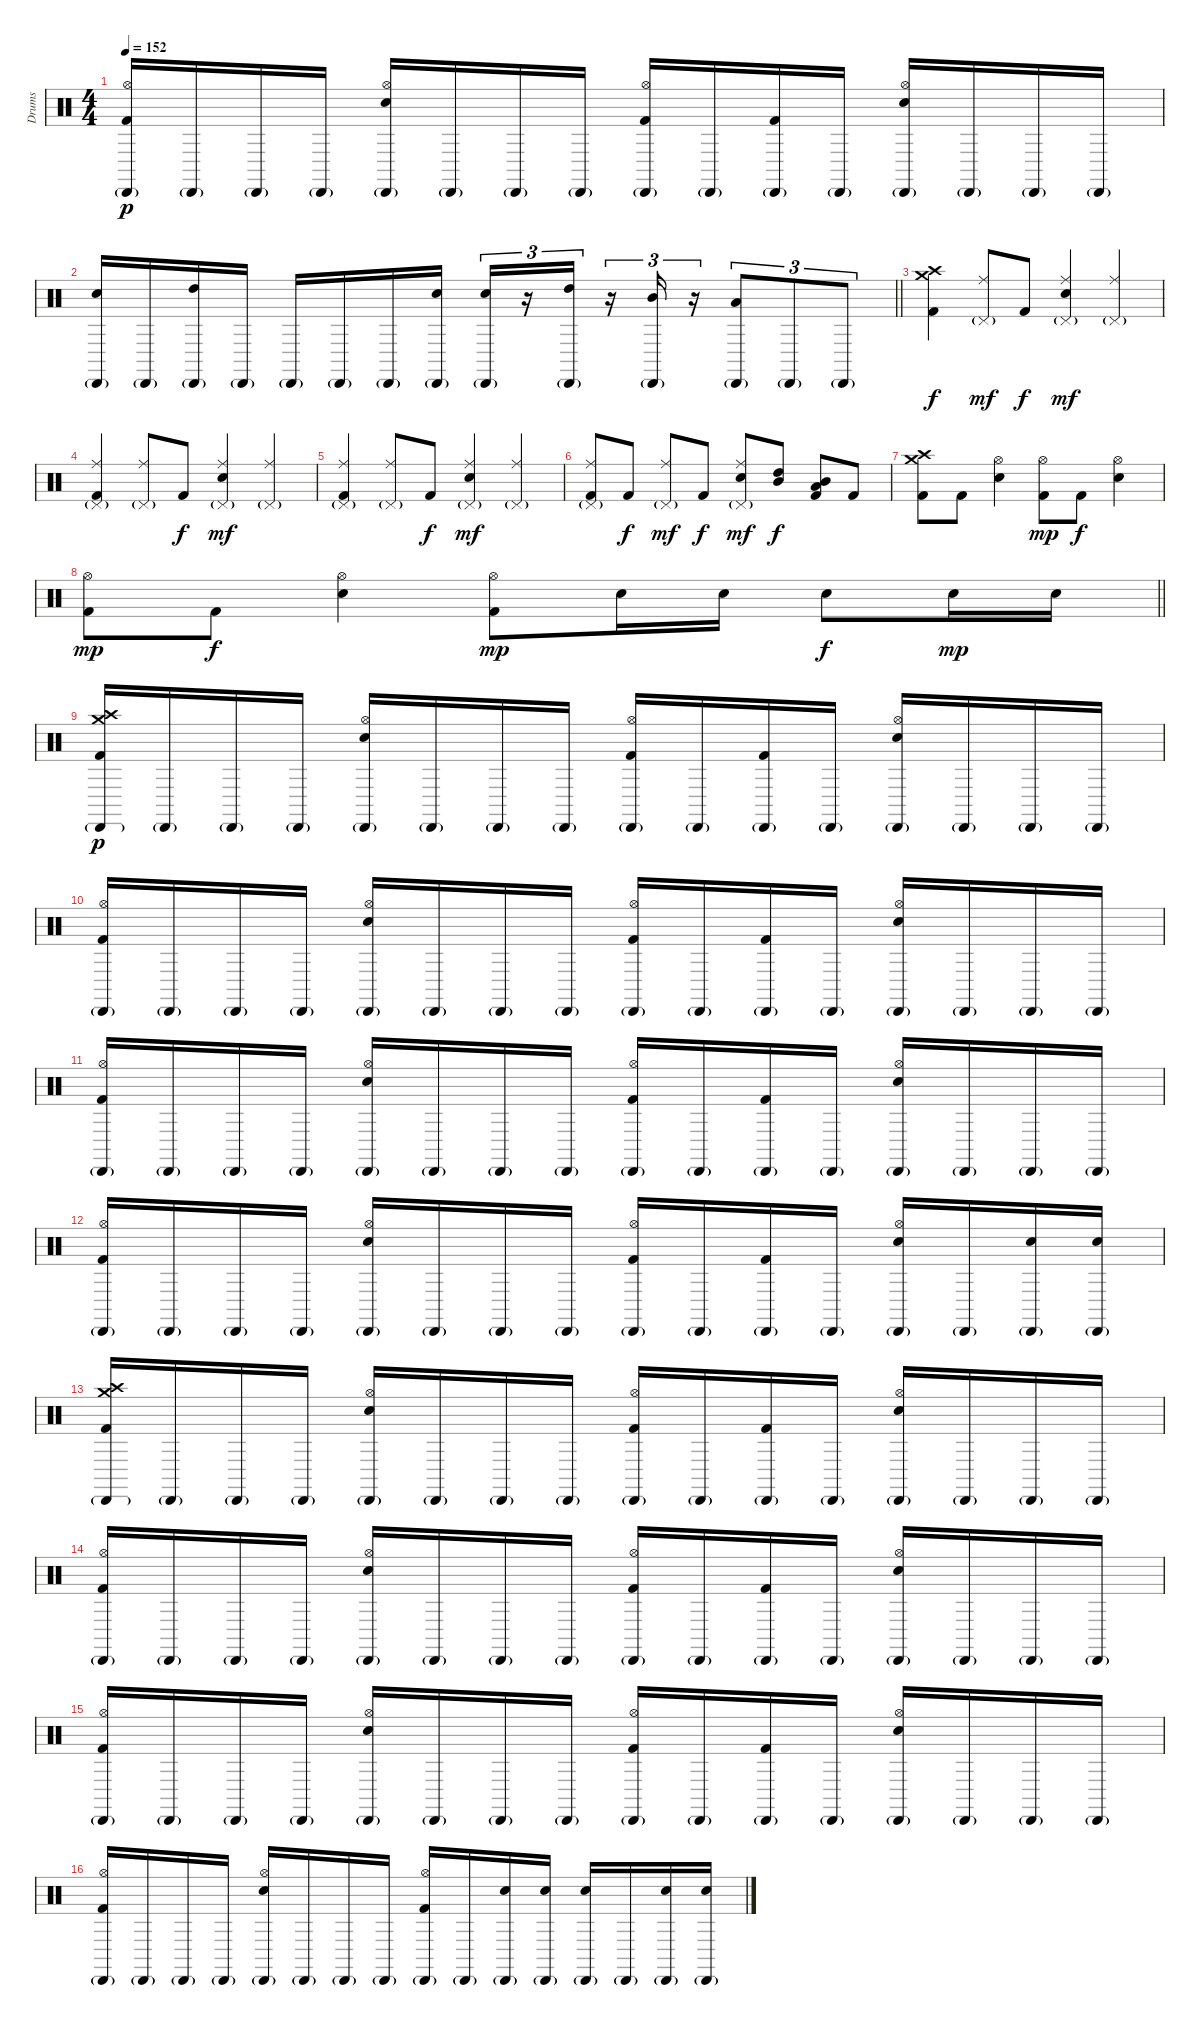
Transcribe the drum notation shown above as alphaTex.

\track ("Drums" "Drums") {instrument percussion}
\staff {score}
\articulation defaults
\ts (4 4)
\tempo 152
\clef neutral
\ks c
("Hi-Hat (open)" "Cabasa (hit)"{g} "Kick (hit) 2").16{dy p} "Cabasa (hit)"{g}.16 "Cabasa (hit)"{g}.16 "Cabasa (hit)"{g}.16 ("Hi-Hat (open)" "Cabasa (hit)"{g} "Electric Snare (hit)").16 "Cabasa (hit)"{g}.16 "Cabasa (hit)"{g}.16 "Cabasa (hit)"{g}.16 ("Hi-Hat (open)" "Cabasa (hit)"{g} "Kick (hit) 2").16 "Cabasa (hit)"{g}.16 ("Cabasa (hit)"{g} "Kick (hit) 2").16 "Cabasa (hit)"{g}.16 ("Hi-Hat (open)" "Cabasa (hit)"{g} "Electric Snare (hit)").16 "Cabasa (hit)"{g}.16 "Cabasa (hit)"{g}.16 "Cabasa (hit)"{g}.16 |
\barLineRight lightlight
("Cabasa (hit)"{g} "Electric Snare (hit)").16 "Cabasa (hit)"{g}.16 ("Cabasa (hit)"{g} "High Tom (hit)").16 "Cabasa (hit)"{g}.16 "Cabasa (hit)"{g}.16 "Cabasa (hit)"{g}.16 "Cabasa (hit)"{g}.16 ("Cabasa (hit)"{g} "Electric Snare (hit)").16 ("Cabasa (hit)"{g} "Electric Snare (hit)").16{tu (3 2)} r.16{tu (3 2)} ("High Tom (hit)" "Cabasa (hit)"{g}).16{tu (3 2)} r.16{tu (3 2)} ("Mid Tom (hit)" "Cabasa (hit)"{g}).16{tu (3 2)} r.16{tu (3 2)} ("Cabasa (hit)"{g} "Low Tom (hit)").8{tu (3 2)} "Cabasa (hit)"{g}.8{tu (3 2)} "Cabasa (hit)"{g}.8{tu (3 2)} |
("Crash high (hit)" "Crash medium (hit)" "Kick (hit) 2").4{dy f} ("Ride (middle)" "Pedal Hi-Hat (hit)"{g}).8{dy mf} "Kick (hit) 2".8{dy f} ("Ride (middle)" "Pedal Hi-Hat (hit)"{g} "Electric Snare (hit)").4{dy mf} ("Ride (middle)" "Pedal Hi-Hat (hit)"{g}).4 |
("Ride (middle)" "Pedal Hi-Hat (hit)"{g} "Kick (hit) 2").4 ("Ride (middle)" "Pedal Hi-Hat (hit)"{g}).8 "Kick (hit) 2".8{dy f} ("Ride (middle)" "Pedal Hi-Hat (hit)"{g} "Electric Snare (hit)").4{dy mf} ("Ride (middle)" "Pedal Hi-Hat (hit)"{g}).4 |
("Ride (middle)" "Pedal Hi-Hat (hit)"{g} "Kick (hit) 2").4 ("Ride (middle)" "Pedal Hi-Hat (hit)"{g}).8 "Kick (hit) 2".8{dy f} ("Ride (middle)" "Pedal Hi-Hat (hit)"{g} "Electric Snare (hit)").4{dy mf} ("Ride (middle)" "Pedal Hi-Hat (hit)"{g}).4 |
("Ride (middle)" "Pedal Hi-Hat (hit)"{g} "Kick (hit) 2").8 "Kick (hit) 2".8{dy f} ("Ride (middle)" "Pedal Hi-Hat (hit)"{g}).8{dy mf} "Kick (hit) 2".8{dy f} ("Ride (middle)" "Pedal Hi-Hat (hit)"{g} "Electric Snare (hit)").8{dy mf} ("High Tom (hit)" "Mid Tom (hit)").8{dy f} ("Mid Tom (hit)" "Low Tom (hit)" "Kick (hit) 2").8 "Kick (hit) 2".8 |
("Crash high (hit)" "Crash medium (hit)" "Kick (hit) 2").8 "Kick (hit) 2".8 ("Hi-Hat (open)" "Electric Snare (hit)").4 ("Hi-Hat (open)" "Kick (hit) 2").8{dy mp} "Kick (hit) 2".8{dy f} ("Hi-Hat (open)" "Electric Snare (hit)").4 |
\barLineRight lightlight
("Hi-Hat (open)" "Kick (hit) 2").8{dy mp} "Kick (hit) 2".8{dy f} ("Hi-Hat (open)" "Electric Snare (hit)").4 ("Hi-Hat (open)" "Kick (hit) 2").8{dy mp} "Electric Snare (hit)".16 "Electric Snare (hit)".16 "Electric Snare (hit)".8{dy f} "Electric Snare (hit)".16{dy mp} "Electric Snare (hit)".16 |
("Crash high (hit)" "Crash medium (hit)" "Cabasa (hit)"{g} "Kick (hit) 2").16{dy p} "Cabasa (hit)"{g}.16 "Cabasa (hit)"{g}.16 "Cabasa (hit)"{g}.16 ("Hi-Hat (open)" "Cabasa (hit)"{g} "Electric Snare (hit)").16 "Cabasa (hit)"{g}.16 "Cabasa (hit)"{g}.16 "Cabasa (hit)"{g}.16 ("Hi-Hat (open)" "Cabasa (hit)"{g} "Kick (hit) 2").16 "Cabasa (hit)"{g}.16 ("Cabasa (hit)"{g} "Kick (hit) 2").16 "Cabasa (hit)"{g}.16 ("Hi-Hat (open)" "Cabasa (hit)"{g} "Electric Snare (hit)").16 "Cabasa (hit)"{g}.16 "Cabasa (hit)"{g}.16 "Cabasa (hit)"{g}.16 |
("Hi-Hat (open)" "Cabasa (hit)"{g} "Kick (hit) 2").16 "Cabasa (hit)"{g}.16 "Cabasa (hit)"{g}.16 "Cabasa (hit)"{g}.16 ("Hi-Hat (open)" "Cabasa (hit)"{g} "Electric Snare (hit)").16 "Cabasa (hit)"{g}.16 "Cabasa (hit)"{g}.16 "Cabasa (hit)"{g}.16 ("Hi-Hat (open)" "Cabasa (hit)"{g} "Kick (hit) 2").16 "Cabasa (hit)"{g}.16 ("Cabasa (hit)"{g} "Kick (hit) 2").16 "Cabasa (hit)"{g}.16 ("Hi-Hat (open)" "Cabasa (hit)"{g} "Electric Snare (hit)").16 "Cabasa (hit)"{g}.16 "Cabasa (hit)"{g}.16 "Cabasa (hit)"{g}.16 |
("Hi-Hat (open)" "Cabasa (hit)"{g} "Kick (hit) 2").16 "Cabasa (hit)"{g}.16 "Cabasa (hit)"{g}.16 "Cabasa (hit)"{g}.16 ("Hi-Hat (open)" "Cabasa (hit)"{g} "Electric Snare (hit)").16 "Cabasa (hit)"{g}.16 "Cabasa (hit)"{g}.16 "Cabasa (hit)"{g}.16 ("Hi-Hat (open)" "Cabasa (hit)"{g} "Kick (hit) 2").16 "Cabasa (hit)"{g}.16 ("Cabasa (hit)"{g} "Kick (hit) 2").16 "Cabasa (hit)"{g}.16 ("Hi-Hat (open)" "Cabasa (hit)"{g} "Electric Snare (hit)").16 "Cabasa (hit)"{g}.16 "Cabasa (hit)"{g}.16 "Cabasa (hit)"{g}.16 |
("Hi-Hat (open)" "Cabasa (hit)"{g} "Kick (hit) 2").16 "Cabasa (hit)"{g}.16 "Cabasa (hit)"{g}.16 "Cabasa (hit)"{g}.16 ("Hi-Hat (open)" "Cabasa (hit)"{g} "Electric Snare (hit)").16 "Cabasa (hit)"{g}.16 "Cabasa (hit)"{g}.16 "Cabasa (hit)"{g}.16 ("Hi-Hat (open)" "Cabasa (hit)"{g} "Kick (hit) 2").16 "Cabasa (hit)"{g}.16 ("Cabasa (hit)"{g} "Kick (hit) 2").16 "Cabasa (hit)"{g}.16 ("Hi-Hat (open)" "Cabasa (hit)"{g} "Electric Snare (hit)").16 "Cabasa (hit)"{g}.16 ("Cabasa (hit)"{g} "Electric Snare (hit)").16 ("Cabasa (hit)"{g} "Electric Snare (hit)").16 |
("Crash high (hit)" "Crash medium (hit)" "Cabasa (hit)"{g} "Kick (hit) 2").16 "Cabasa (hit)"{g}.16 "Cabasa (hit)"{g}.16 "Cabasa (hit)"{g}.16 ("Hi-Hat (open)" "Cabasa (hit)"{g} "Electric Snare (hit)").16 "Cabasa (hit)"{g}.16 "Cabasa (hit)"{g}.16 "Cabasa (hit)"{g}.16 ("Hi-Hat (open)" "Cabasa (hit)"{g} "Kick (hit) 2").16 "Cabasa (hit)"{g}.16 ("Cabasa (hit)"{g} "Kick (hit) 2").16 "Cabasa (hit)"{g}.16 ("Hi-Hat (open)" "Cabasa (hit)"{g} "Electric Snare (hit)").16 "Cabasa (hit)"{g}.16 "Cabasa (hit)"{g}.16 "Cabasa (hit)"{g}.16 |
("Hi-Hat (open)" "Cabasa (hit)"{g} "Kick (hit) 2").16 "Cabasa (hit)"{g}.16 "Cabasa (hit)"{g}.16 "Cabasa (hit)"{g}.16 ("Hi-Hat (open)" "Cabasa (hit)"{g} "Electric Snare (hit)").16 "Cabasa (hit)"{g}.16 "Cabasa (hit)"{g}.16 "Cabasa (hit)"{g}.16 ("Hi-Hat (open)" "Cabasa (hit)"{g} "Kick (hit) 2").16 "Cabasa (hit)"{g}.16 ("Cabasa (hit)"{g} "Kick (hit) 2").16 "Cabasa (hit)"{g}.16 ("Hi-Hat (open)" "Cabasa (hit)"{g} "Electric Snare (hit)").16 "Cabasa (hit)"{g}.16 "Cabasa (hit)"{g}.16 "Cabasa (hit)"{g}.16 |
("Hi-Hat (open)" "Cabasa (hit)"{g} "Kick (hit) 2").16 "Cabasa (hit)"{g}.16 "Cabasa (hit)"{g}.16 "Cabasa (hit)"{g}.16 ("Hi-Hat (open)" "Cabasa (hit)"{g} "Electric Snare (hit)").16 "Cabasa (hit)"{g}.16 "Cabasa (hit)"{g}.16 "Cabasa (hit)"{g}.16 ("Hi-Hat (open)" "Cabasa (hit)"{g} "Kick (hit) 2").16 "Cabasa (hit)"{g}.16 ("Cabasa (hit)"{g} "Kick (hit) 2").16 "Cabasa (hit)"{g}.16 ("Hi-Hat (open)" "Cabasa (hit)"{g} "Electric Snare (hit)").16 "Cabasa (hit)"{g}.16 "Cabasa (hit)"{g}.16 "Cabasa (hit)"{g}.16 |
("Hi-Hat (open)" "Cabasa (hit)"{g} "Kick (hit) 2").16 "Cabasa (hit)"{g}.16 "Cabasa (hit)"{g}.16 "Cabasa (hit)"{g}.16 ("Hi-Hat (open)" "Cabasa (hit)"{g} "Electric Snare (hit)").16 "Cabasa (hit)"{g}.16 "Cabasa (hit)"{g}.16 "Cabasa (hit)"{g}.16 ("Hi-Hat (open)" "Cabasa (hit)"{g} "Kick (hit) 2").16 "Cabasa (hit)"{g}.16 ("Cabasa (hit)"{g} "Electric Snare (hit)").16 ("Cabasa (hit)"{g} "Electric Snare (hit)").16 ("Cabasa (hit)"{g} "Electric Snare (hit)").16 "Cabasa (hit)"{g}.16 ("Cabasa (hit)"{g} "Electric Snare (hit)").16 ("Cabasa (hit)"{g} "Electric Snare (hit)").16
